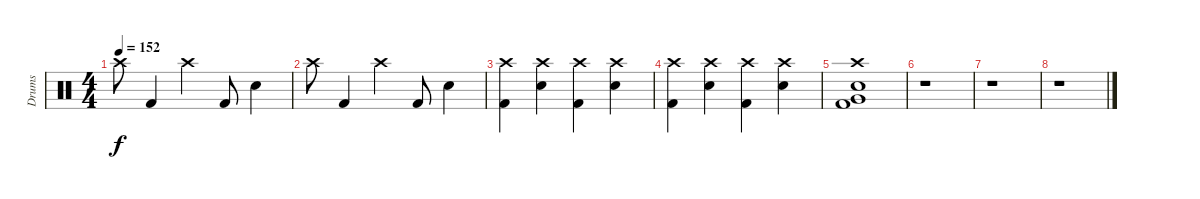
\track ("Drums" "Drums") {instrument percussion}
\staff {score}
\articulation defaults
\ts (4 4)
\tempo 152
\clef neutral
\ks c "Crash high (hit)".8{dy f} "Kick (hit) 2".4 "Crash high (hit)".4 "Kick (hit) 2".8 "Electric Snare (hit)".4
|
"Crash high (hit)".8 "Kick (hit) 2".4 "Crash high (hit)".4 "Kick (hit) 2".8 "Electric Snare (hit)".4 |
("Crash high (hit)" "Kick (hit) 2").4 ("Crash high (hit)" "Electric Snare (hit)").4 ("Crash high (hit)" "Kick (hit) 2").4 ("Crash high (hit)" "Electric Snare (hit)").4 |
("Crash high (hit)" "Kick (hit) 2").4 ("Crash high (hit)" "Electric Snare (hit)").4 ("Crash high (hit)" "Kick (hit) 2").4 ("Crash high (hit)" "Electric Snare (hit)").4 |
("Crash high (hit)" "Very Low Tom (hit)" "Electric Snare (hit)" "Kick (hit) 2").1 |
r.1 |
r.1 |
r.1
